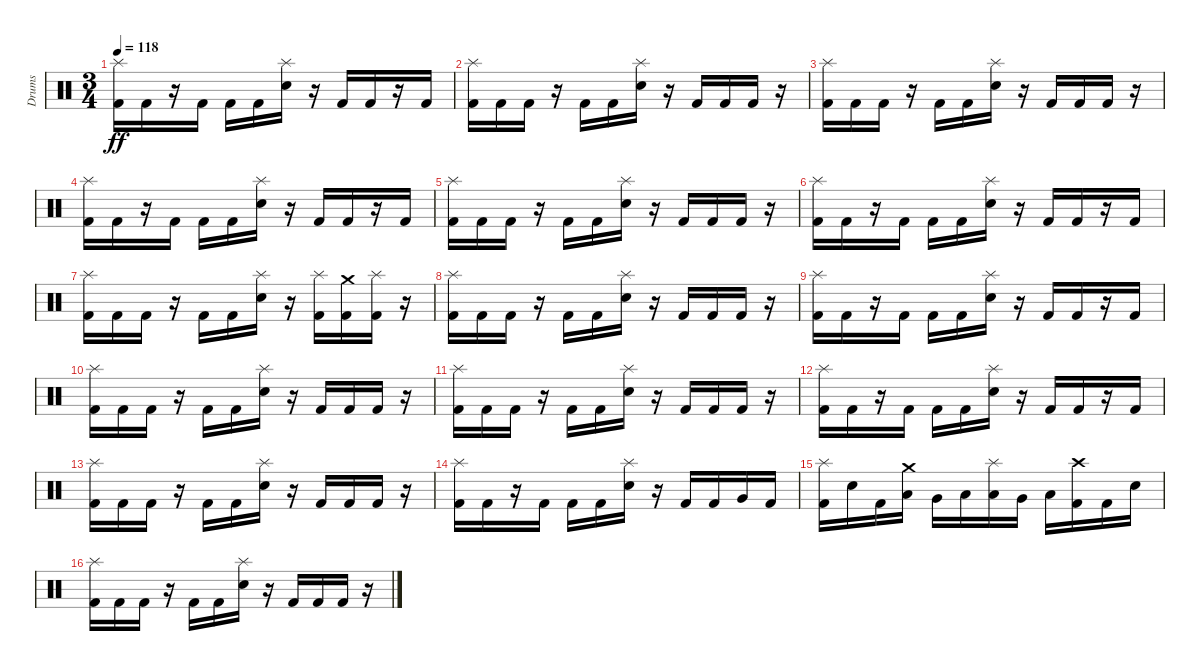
\track ("Drums" "Drums") {instrument percussion}
\staff {score}
\articulation defaults
\ts (3 4)
\tempo 118
\clef neutral
\ks c
("Splash (hit)" "Kick (hit) 2").16{dy ff} "Kick (hit) 2".16 r.16 "Kick (hit) 2".16 "Kick (hit) 2".16 "Kick (hit) 2".16 ("Splash (hit)" "Electric Snare (hit)").16 r.16 "Kick (hit) 2".16 "Kick (hit) 2".16 r.16 "Kick (hit) 2".16 |
("Splash (hit)" "Kick (hit) 2").16 "Kick (hit) 2".16 "Kick (hit) 2".16 r.16 "Kick (hit) 2".16 "Kick (hit) 2".16 ("Splash (hit)" "Electric Snare (hit)").16 r.16 "Kick (hit) 2".16 "Kick (hit) 2".16 "Kick (hit) 2".16 r.16 |
("Splash (hit)" "Kick (hit) 2").16 "Kick (hit) 2".16 "Kick (hit) 2".16 r.16 "Kick (hit) 2".16 "Kick (hit) 2".16 ("Splash (hit)" "Electric Snare (hit)").16 r.16 "Kick (hit) 2".16 "Kick (hit) 2".16 "Kick (hit) 2".16 r.16 |
("Splash (hit)" "Kick (hit) 2").16 "Kick (hit) 2".16 r.16 "Kick (hit) 2".16 "Kick (hit) 2".16 "Kick (hit) 2".16 ("Splash (hit)" "Electric Snare (hit)").16 r.16 "Kick (hit) 2".16 "Kick (hit) 2".16 r.16 "Kick (hit) 2".16 |
("Splash (hit)" "Kick (hit) 2").16 "Kick (hit) 2".16 "Kick (hit) 2".16 r.16 "Kick (hit) 2".16 "Kick (hit) 2".16 ("Splash (hit)" "Electric Snare (hit)").16 r.16 "Kick (hit) 2".16 "Kick (hit) 2".16 "Kick (hit) 2".16 r.16 |
("Splash (hit)" "Kick (hit) 2").16 "Kick (hit) 2".16 r.16 "Kick (hit) 2".16 "Kick (hit) 2".16 "Kick (hit) 2".16 ("Splash (hit)" "Electric Snare (hit)").16 r.16 "Kick (hit) 2".16 "Kick (hit) 2".16 r.16 "Kick (hit) 2".16 |
("Splash (hit)" "Kick (hit) 2").16 "Kick (hit) 2".16 "Kick (hit) 2".16 r.16 "Kick (hit) 2".16 "Kick (hit) 2".16 ("Splash (hit)" "Electric Snare (hit)").16 r.16 ("Splash (hit)" "Kick (hit) 2").16 ("Crash medium (hit)" "Kick (hit) 2").16 ("Splash (hit)" "Kick (hit) 2").16 r.16 |
("Splash (hit)" "Kick (hit) 2").16 "Kick (hit) 2".16 "Kick (hit) 2".16 r.16 "Kick (hit) 2".16 "Kick (hit) 2".16 ("Splash (hit)" "Electric Snare (hit)").16 r.16 "Kick (hit) 2".16 "Kick (hit) 2".16 "Kick (hit) 2".16 r.16 |
("Splash (hit)" "Kick (hit) 2").16 "Kick (hit) 2".16 r.16 "Kick (hit) 2".16 "Kick (hit) 2".16 "Kick (hit) 2".16 ("Splash (hit)" "Electric Snare (hit)").16 r.16 "Kick (hit) 2".16 "Kick (hit) 2".16 r.16 "Kick (hit) 2".16 |
("Splash (hit)" "Kick (hit) 2").16 "Kick (hit) 2".16 "Kick (hit) 2".16 r.16 "Kick (hit) 2".16 "Kick (hit) 2".16 ("Splash (hit)" "Electric Snare (hit)").16 r.16 "Kick (hit) 2".16 "Kick (hit) 2".16 "Kick (hit) 2".16 r.16 |
("Splash (hit)" "Kick (hit) 2").16 "Kick (hit) 2".16 "Kick (hit) 2".16 r.16 "Kick (hit) 2".16 "Kick (hit) 2".16 ("Splash (hit)" "Electric Snare (hit)").16 r.16 "Kick (hit) 2".16 "Kick (hit) 2".16 "Kick (hit) 2".16 r.16 |
("Splash (hit)" "Kick (hit) 2").16 "Kick (hit) 2".16 r.16 "Kick (hit) 2".16 "Kick (hit) 2".16 "Kick (hit) 2".16 ("Splash (hit)" "Electric Snare (hit)").16 r.16 "Kick (hit) 2".16 "Kick (hit) 2".16 r.16 "Kick (hit) 2".16 |
("Splash (hit)" "Kick (hit) 2").16 "Kick (hit) 2".16 "Kick (hit) 2".16 r.16 "Kick (hit) 2".16 "Kick (hit) 2".16 ("Splash (hit)" "Electric Snare (hit)").16 r.16 "Kick (hit) 2".16 "Kick (hit) 2".16 "Kick (hit) 2".16 r.16 |
("Splash (hit)" "Kick (hit) 2").16 "Kick (hit) 2".16 r.16 "Kick (hit) 2".16 "Kick (hit) 2".16 "Kick (hit) 2".16 ("Splash (hit)" "Electric Snare (hit)").16 r.16 "Kick (hit) 2".16 "Kick (hit) 2".16 "Very Low Tom (hit)".16 "Kick (hit) 2".16 |
("Splash (hit)" "Kick (hit) 2").16 "Electric Snare (hit)".16 "Kick (hit) 2".16 ("Crash medium (hit)" "Low Floor Tom (hit)").16 "Very Low Tom (hit)".16 "Low Tom (hit)".16 ("Splash (hit)" "Low Floor Tom (hit)").16 "Very Low Tom (hit)".16 "Low Tom (hit)".16 ("Crash high (hit)" "Kick (hit) 2").16 "Kick (hit) 2".16 "Electric Snare (hit)".16 |
\section ("" "")
("Splash (hit)" "Kick (hit) 2").16 "Kick (hit) 2".16 "Kick (hit) 2".16 r.16 "Kick (hit) 2".16 "Kick (hit) 2".16 ("Splash (hit)" "Electric Snare (hit)").16 r.16 "Kick (hit) 2".16 "Kick (hit) 2".16 "Kick (hit) 2".16 r.16
